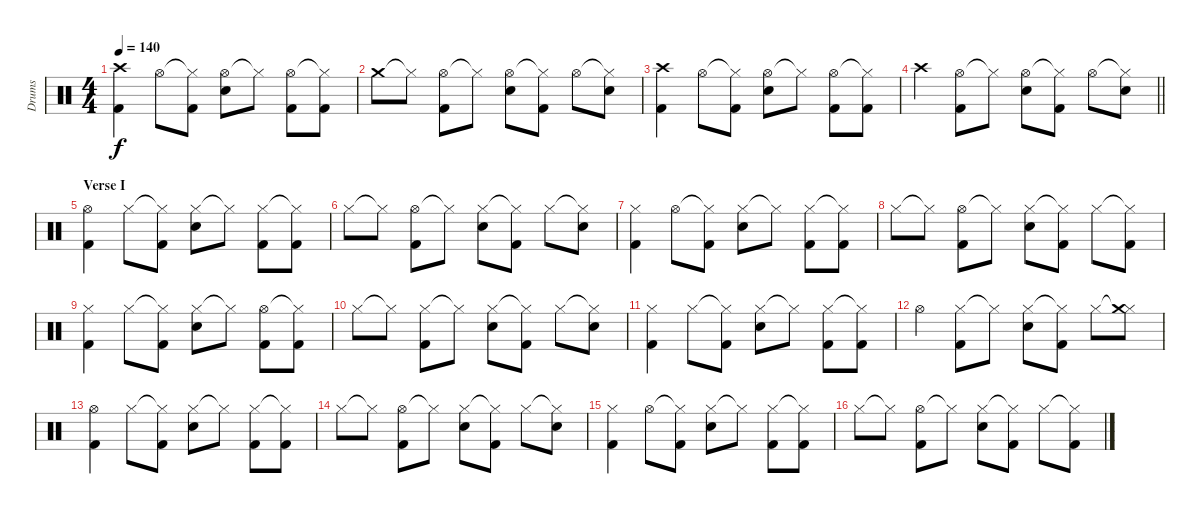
\track ("Drums" "Drums") {instrument percussion}
\staff {score}
\articulation defaults
\ts (4 4)
\tempo 140
\clef neutral
\ks c
("Crash high (hit)" "Kick (hit) 2").4{dy f} "Hi-Hat (open)".8 ("Hi-Hat (closed)"{t} "Kick (hit) 2").8 ("Hi-Hat (open)" "Snare (hit) 2").8 "Hi-Hat (closed)"{t}.8 ("Hi-Hat (open)" "Kick (hit) 2").8 ("Hi-Hat (closed)"{t} "Kick (hit) 2").8 |
"Crash medium (hit)".8 "Hi-Hat (closed)"{t}.8 ("Hi-Hat (open)" "Kick (hit) 2").8 "Hi-Hat (closed)"{t}.8 ("Hi-Hat (open)" "Snare (hit) 2").8 ("Hi-Hat (closed)"{t} "Kick (hit) 2").8 "Hi-Hat (open)".8 ("Hi-Hat (closed)"{t} "Snare (hit) 2").8 |
("Crash high (hit)" "Kick (hit) 2").4 "Hi-Hat (open)".8 ("Hi-Hat (closed)"{t} "Kick (hit) 2").8 ("Hi-Hat (open)" "Snare (hit) 2").8 "Hi-Hat (closed)"{t}.8 ("Hi-Hat (open)" "Kick (hit) 2").8 ("Hi-Hat (closed)"{t} "Kick (hit) 2").8 |
\barLineRight lightlight "Crash high (hit)".4
("Hi-Hat (open)" "Kick (hit) 2").8 "Hi-Hat (closed)"{t}.8 ("Hi-Hat (open)" "Snare (hit) 2").8 ("Hi-Hat (closed)"{t} "Kick (hit) 2").8 "Hi-Hat (open)".8 ("Hi-Hat (closed)"{t} "Snare (hit) 2").8 |
\section ("" "Verse I")
("Hi-Hat (open)" "Kick (hit) 2").4 "Hi-Hat (closed)".8 ("Hi-Hat (closed)"{t} "Kick (hit) 2").8 ("Hi-Hat (closed)" "Snare (hit) 2").8 "Hi-Hat (closed)"{t}.8 ("Hi-Hat (closed)" "Kick (hit) 2").8 ("Hi-Hat (closed)"{t} "Kick (hit) 2").8 |
"Hi-Hat (closed)".8 "Hi-Hat (closed)"{t}.8 ("Hi-Hat (open)" "Kick (hit) 2").8 "Hi-Hat (closed)"{t}.8 ("Hi-Hat (closed)" "Snare (hit) 2").8 ("Hi-Hat (closed)"{t} "Kick (hit) 2").8 "Hi-Hat (closed)".8 ("Hi-Hat (closed)"{t} "Snare (hit) 2").8 |
("Hi-Hat (closed)" "Kick (hit) 2").4 "Hi-Hat (open)".8 ("Hi-Hat (closed)"{t} "Kick (hit) 2").8 ("Hi-Hat (closed)" "Snare (hit) 2").8 "Hi-Hat (closed)"{t}.8 ("Hi-Hat (closed)" "Kick (hit) 2").8 ("Hi-Hat (closed)"{t} "Kick (hit) 2").8 |
"Hi-Hat (closed)".8 "Hi-Hat (closed)"{t}.8 ("Hi-Hat (open)" "Kick (hit) 2").8 "Hi-Hat (closed)"{t}.8 ("Hi-Hat (closed)" "Snare (hit) 2").8 ("Hi-Hat (closed)"{t} "Kick (hit) 2").8 "Hi-Hat (closed)".8 ("Hi-Hat (closed)"{t} "Kick (hit) 2").8 |
("Hi-Hat (closed)" "Kick (hit) 2").4 "Hi-Hat (closed)".8 ("Hi-Hat (closed)"{t} "Kick (hit) 2").8 ("Hi-Hat (closed)" "Snare (hit) 2").8 "Hi-Hat (closed)"{t}.8 ("Hi-Hat (open)" "Kick (hit) 2").8 ("Hi-Hat (closed)"{t} "Kick (hit) 2").8 |
"Hi-Hat (closed)".8 "Hi-Hat (closed)"{t}.8 ("Hi-Hat (closed)" "Kick (hit) 2").8 "Hi-Hat (closed)"{t}.8 ("Hi-Hat (closed)" "Snare (hit) 2").8 ("Hi-Hat (closed)"{t} "Kick (hit) 2").8 "Hi-Hat (closed)".8 ("Hi-Hat (closed)"{t} "Snare (hit) 2").8 |
("Hi-Hat (closed)" "Kick (hit) 2").4 "Hi-Hat (closed)".8 ("Hi-Hat (closed)"{t} "Kick (hit) 2").8 ("Hi-Hat (closed)" "Snare (hit) 2").8 "Hi-Hat (closed)"{t}.8 ("Hi-Hat (closed)" "Kick (hit) 2").8 ("Hi-Hat (closed)"{t} "Kick (hit) 2").8 |
"Hi-Hat (open)".4 ("Hi-Hat (closed)" "Kick (hit) 2").8 "Hi-Hat (closed)"{t}.8 ("Hi-Hat (closed)" "Snare (hit) 2").8 ("Hi-Hat (closed)"{t} "Kick (hit) 2").8 "Hi-Hat (closed)".8 ("Hi-Hat (closed)"{t} "Crash medium (hit)").8 |
("Hi-Hat (open)" "Kick (hit) 2").4 "Hi-Hat (closed)".8 ("Hi-Hat (closed)"{t} "Kick (hit) 2").8 ("Hi-Hat (closed)" "Snare (hit) 2").8 "Hi-Hat (closed)"{t}.8 ("Hi-Hat (closed)" "Kick (hit) 2").8 ("Hi-Hat (closed)"{t} "Kick (hit) 2").8 |
"Hi-Hat (closed)".8 "Hi-Hat (closed)"{t}.8 ("Hi-Hat (open)" "Kick (hit) 2").8 "Hi-Hat (closed)"{t}.8 ("Hi-Hat (closed)" "Snare (hit) 2").8 ("Hi-Hat (closed)"{t} "Kick (hit) 2").8 "Hi-Hat (closed)".8 ("Hi-Hat (closed)"{t} "Snare (hit) 2").8 |
("Hi-Hat (closed)" "Kick (hit) 2").4 "Hi-Hat (open)".8 ("Hi-Hat (closed)"{t} "Kick (hit) 2").8 ("Hi-Hat (closed)" "Snare (hit) 2").8 "Hi-Hat (closed)"{t}.8 ("Hi-Hat (closed)" "Kick (hit) 2").8 ("Hi-Hat (closed)"{t} "Kick (hit) 2").8 |
"Hi-Hat (closed)".8 "Hi-Hat (closed)"{t}.8 ("Hi-Hat (open)" "Kick (hit) 2").8 "Hi-Hat (closed)"{t}.8 ("Hi-Hat (closed)" "Snare (hit) 2").8 ("Hi-Hat (closed)"{t} "Kick (hit) 2").8 "Hi-Hat (closed)".8 ("Hi-Hat (closed)"{t} "Kick (hit) 2").8
